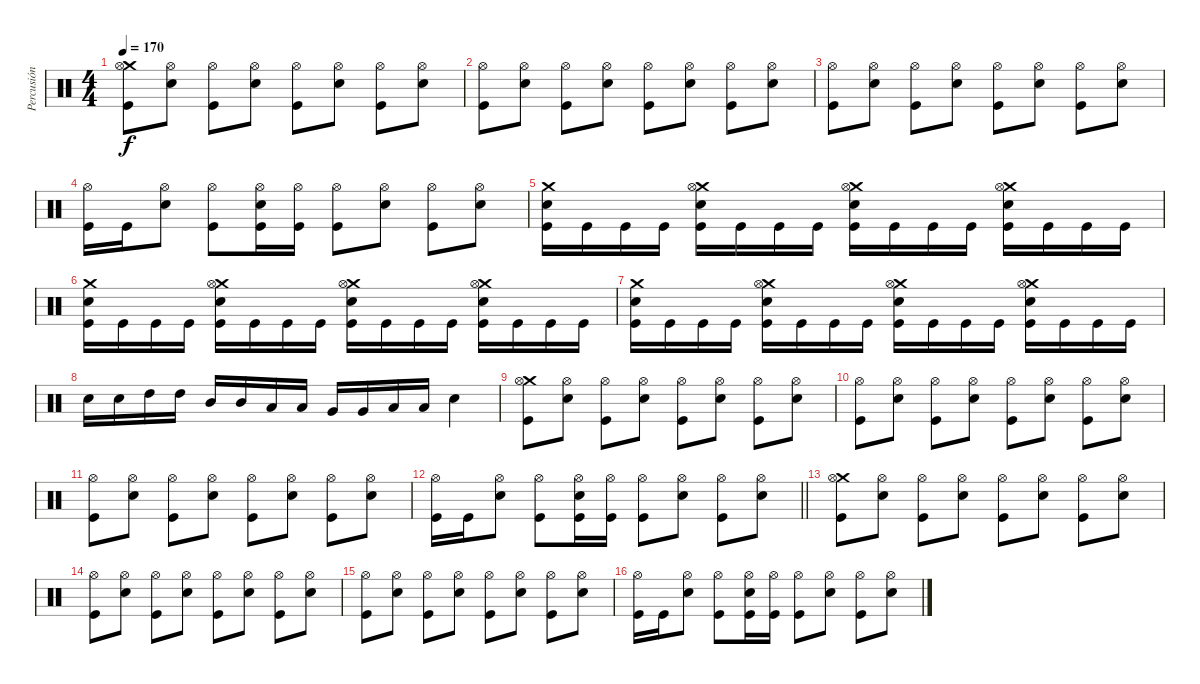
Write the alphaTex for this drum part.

\track ("Percusión" "Percusión") {instrument percussion}
\staff {score}
\articulation defaults
\ts (4 4)
\tempo 170
\clef neutral
\ks c
("Crash medium (hit)" "Hi-Hat (open)" "Kick (hit)").8{dy f} ("Hi-Hat (open)" "Electric Snare (hit)").8 ("Hi-Hat (open)" "Kick (hit)").8 ("Hi-Hat (open)" "Electric Snare (hit)").8 ("Hi-Hat (open)" "Kick (hit)").8 ("Hi-Hat (open)" "Electric Snare (hit)").8 ("Hi-Hat (open)" "Kick (hit)").8 ("Hi-Hat (open)" "Electric Snare (hit)").8 |
("Hi-Hat (open)" "Kick (hit)").8 ("Hi-Hat (open)" "Electric Snare (hit)").8 ("Hi-Hat (open)" "Kick (hit)").8 ("Hi-Hat (open)" "Electric Snare (hit)").8 ("Hi-Hat (open)" "Kick (hit)").8 ("Hi-Hat (open)" "Electric Snare (hit)").8 ("Hi-Hat (open)" "Kick (hit)").8 ("Hi-Hat (open)" "Electric Snare (hit)").8 |
("Hi-Hat (open)" "Kick (hit)").8 ("Hi-Hat (open)" "Electric Snare (hit)").8 ("Hi-Hat (open)" "Kick (hit)").8 ("Hi-Hat (open)" "Electric Snare (hit)").8 ("Hi-Hat (open)" "Kick (hit)").8 ("Hi-Hat (open)" "Electric Snare (hit)").8 ("Hi-Hat (open)" "Kick (hit)").8 ("Hi-Hat (open)" "Electric Snare (hit)").8 |
("Hi-Hat (open)" "Kick (hit)").16 "Kick (hit)".16 ("Hi-Hat (open)" "Electric Snare (hit)").8 ("Hi-Hat (open)" "Kick (hit)").8 ("Hi-Hat (open)" "Electric Snare (hit)" "Kick (hit)").16 ("Hi-Hat (open)" "Kick (hit)").16 ("Hi-Hat (open)" "Kick (hit)").8 ("Hi-Hat (open)" "Electric Snare (hit)").8 ("Hi-Hat (open)" "Kick (hit)").8 ("Hi-Hat (open)" "Electric Snare (hit)").8 |
("Crash medium (hit)" "Electric Snare (hit)" "Kick (hit)").16 "Kick (hit)".16 "Kick (hit)".16 "Kick (hit)".16 ("Crash medium (hit)" "Hi-Hat (open)" "Electric Snare (hit)" "Kick (hit)").16 "Kick (hit)".16 "Kick (hit)".16 "Kick (hit)".16 ("Crash medium (hit)" "Hi-Hat (open)" "Electric Snare (hit)" "Kick (hit)").16 "Kick (hit)".16 "Kick (hit)".16 "Kick (hit)".16 ("Crash medium (hit)" "Hi-Hat (open)" "Electric Snare (hit)" "Kick (hit)").16 "Kick (hit)".16 "Kick (hit)".16 "Kick (hit)".16 |
("Crash medium (hit)" "Electric Snare (hit)" "Kick (hit)").16 "Kick (hit)".16 "Kick (hit)".16 "Kick (hit)".16 ("Crash medium (hit)" "Hi-Hat (open)" "Electric Snare (hit)" "Kick (hit)").16 "Kick (hit)".16 "Kick (hit)".16 "Kick (hit)".16 ("Crash medium (hit)" "Hi-Hat (open)" "Electric Snare (hit)" "Kick (hit)").16 "Kick (hit)".16 "Kick (hit)".16 "Kick (hit)".16 ("Crash medium (hit)" "Hi-Hat (open)" "Electric Snare (hit)" "Kick (hit)").16 "Kick (hit)".16 "Kick (hit)".16 "Kick (hit)".16 |
("Crash medium (hit)" "Electric Snare (hit)" "Kick (hit)").16 "Kick (hit)".16 "Kick (hit)".16 "Kick (hit)".16 ("Crash medium (hit)" "Hi-Hat (open)" "Electric Snare (hit)" "Kick (hit)").16 "Kick (hit)".16 "Kick (hit)".16 "Kick (hit)".16 ("Crash medium (hit)" "Hi-Hat (open)" "Electric Snare (hit)" "Kick (hit)").16 "Kick (hit)".16 "Kick (hit)".16 "Kick (hit)".16 ("Crash medium (hit)" "Hi-Hat (open)" "Electric Snare (hit)" "Kick (hit)").16 "Kick (hit)".16 "Kick (hit)".16 "Kick (hit)".16 |
"Electric Snare (hit)".16 "Electric Snare (hit)".16 "High Tom (hit)".16 "High Tom (hit)".16 "Mid Tom (hit)".16 "Mid Tom (hit)".16 "Low Tom (hit)".16 "Low Tom (hit)".16 "Very Low Tom (hit)".16 "Very Low Tom (hit)".16 "Low Tom (hit)".16 "Low Tom (hit)".16 "Electric Snare (hit)".4 |
("Crash medium (hit)" "Hi-Hat (open)" "Kick (hit)").8 ("Hi-Hat (open)" "Electric Snare (hit)").8 ("Hi-Hat (open)" "Kick (hit)").8 ("Hi-Hat (open)" "Electric Snare (hit)").8 ("Hi-Hat (open)" "Kick (hit)").8 ("Hi-Hat (open)" "Electric Snare (hit)").8 ("Hi-Hat (open)" "Kick (hit)").8 ("Hi-Hat (open)" "Electric Snare (hit)").8 |
("Hi-Hat (open)" "Kick (hit)").8 ("Hi-Hat (open)" "Electric Snare (hit)").8 ("Hi-Hat (open)" "Kick (hit)").8 ("Hi-Hat (open)" "Electric Snare (hit)").8 ("Hi-Hat (open)" "Kick (hit)").8 ("Hi-Hat (open)" "Electric Snare (hit)").8 ("Hi-Hat (open)" "Kick (hit)").8 ("Hi-Hat (open)" "Electric Snare (hit)").8 |
("Hi-Hat (open)" "Kick (hit)").8 ("Hi-Hat (open)" "Electric Snare (hit)").8 ("Hi-Hat (open)" "Kick (hit)").8 ("Hi-Hat (open)" "Electric Snare (hit)").8 ("Hi-Hat (open)" "Kick (hit)").8 ("Hi-Hat (open)" "Electric Snare (hit)").8 ("Hi-Hat (open)" "Kick (hit)").8 ("Hi-Hat (open)" "Electric Snare (hit)").8 |
\barLineRight lightlight
("Hi-Hat (open)" "Kick (hit)").16 "Kick (hit)".16 ("Hi-Hat (open)" "Electric Snare (hit)").8 ("Hi-Hat (open)" "Kick (hit)").8 ("Hi-Hat (open)" "Electric Snare (hit)" "Kick (hit)").16 ("Hi-Hat (open)" "Kick (hit)").16 ("Hi-Hat (open)" "Kick (hit)").8 ("Hi-Hat (open)" "Electric Snare (hit)").8 ("Hi-Hat (open)" "Kick (hit)").8 ("Hi-Hat (open)" "Electric Snare (hit)").8 |
("Crash medium (hit)" "Hi-Hat (open)" "Kick (hit)").8{volume 10} ("Hi-Hat (open)" "Electric Snare (hit)").8 ("Hi-Hat (open)" "Kick (hit)").8 ("Hi-Hat (open)" "Electric Snare (hit)").8 ("Hi-Hat (open)" "Kick (hit)").8 ("Hi-Hat (open)" "Electric Snare (hit)").8 ("Hi-Hat (open)" "Kick (hit)").8 ("Hi-Hat (open)" "Electric Snare (hit)").8 |
("Hi-Hat (open)" "Kick (hit)").8 ("Hi-Hat (open)" "Electric Snare (hit)").8 ("Hi-Hat (open)" "Kick (hit)").8 ("Hi-Hat (open)" "Electric Snare (hit)").8 ("Hi-Hat (open)" "Kick (hit)").8 ("Hi-Hat (open)" "Electric Snare (hit)").8 ("Hi-Hat (open)" "Kick (hit)").8 ("Hi-Hat (open)" "Electric Snare (hit)").8 |
("Hi-Hat (open)" "Kick (hit)").8 ("Hi-Hat (open)" "Electric Snare (hit)").8 ("Hi-Hat (open)" "Kick (hit)").8 ("Hi-Hat (open)" "Electric Snare (hit)").8 ("Hi-Hat (open)" "Kick (hit)").8 ("Hi-Hat (open)" "Electric Snare (hit)").8 ("Hi-Hat (open)" "Kick (hit)").8 ("Hi-Hat (open)" "Electric Snare (hit)").8 |
("Hi-Hat (open)" "Kick (hit)").16 "Kick (hit)".16 ("Hi-Hat (open)" "Electric Snare (hit)").8 ("Hi-Hat (open)" "Kick (hit)").8 ("Hi-Hat (open)" "Electric Snare (hit)" "Kick (hit)").16 ("Hi-Hat (open)" "Kick (hit)").16 ("Hi-Hat (open)" "Kick (hit)").8 ("Hi-Hat (open)" "Electric Snare (hit)").8 ("Hi-Hat (open)" "Kick (hit)").8 ("Hi-Hat (open)" "Electric Snare (hit)").8
